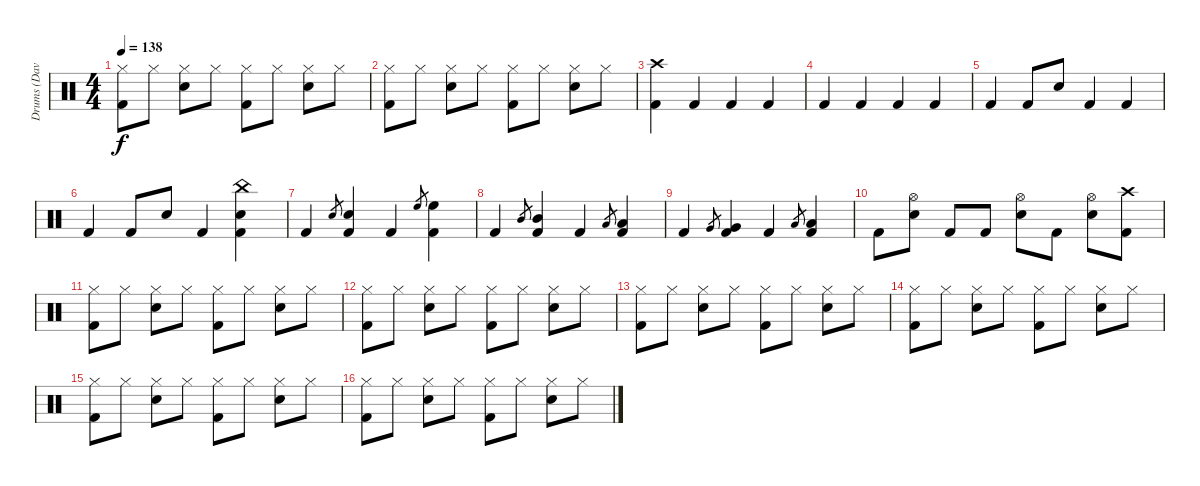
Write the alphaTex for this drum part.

\track ("Drums (Dave Holland)" "Drums (Dav") {instrument percussion}
\staff {score}
\articulation defaults
\ts (4 4)
\tempo 138
\clef neutral
\ks c
("Hi-Hat (closed)" "Kick (hit) 2").8{dy f} "Hi-Hat (closed)".8 ("Hi-Hat (closed)" "Snare (hit) 2").8 "Hi-Hat (closed)".8 ("Hi-Hat (closed)" "Kick (hit) 2").8 "Hi-Hat (closed)".8 ("Hi-Hat (closed)" "Snare (hit) 2").8 "Hi-Hat (closed)".8 |
("Hi-Hat (closed)" "Kick (hit) 2").8 "Hi-Hat (closed)".8 ("Hi-Hat (closed)" "Snare (hit) 2").8 "Hi-Hat (closed)".8 ("Hi-Hat (closed)" "Kick (hit) 2").8 "Hi-Hat (closed)".8 ("Hi-Hat (closed)" "Snare (hit) 2").8 "Hi-Hat (closed)".8 |
("Crash high (hit)" "Kick (hit) 2").4 "Kick (hit) 2".4 "Kick (hit) 2".4 "Kick (hit) 2".4 |
"Kick (hit) 2".4 "Kick (hit) 2".4 "Kick (hit) 2".4 "Kick (hit) 2".4 |
"Kick (hit) 2".4 "Kick (hit) 2".8 "Snare (hit) 2".8 "Kick (hit) 2".4 "Kick (hit) 2".4 |
"Kick (hit) 2".4 "Kick (hit) 2".8 "Snare (hit) 2".8 "Kick (hit) 2".4 ("China (hit)" "Snare (hit) 2" "Kick (hit) 2").4 |
"Kick (hit) 2".4 "Snare (hit) 2".8{gr} ("Snare (hit) 2" "Kick (hit) 2").4 "Kick (hit) 2".4 "High Floor Tom (hit)".8{gr} ("High Floor Tom (hit)" "Kick (hit) 2").4 |
"Kick (hit) 2".4 "Mid Tom (hit)".8{gr} ("Mid Tom (hit)" "Kick (hit) 2").4 "Kick (hit) 2".4 "Low Tom (hit)".8{gr} ("Low Tom (hit)" "Kick (hit) 2").4 |
"Kick (hit) 2".4 "Very Low Tom (hit)".8{gr} ("Very Low Tom (hit)" "Kick (hit) 2").4 "Kick (hit) 2".4 "Low Floor Tom (hit)".8{gr} ("Low Floor Tom (hit)" "Kick (hit) 2").4 |
"Kick (hit) 2".8 ("Hi-Hat (open)" "Snare (hit) 2").8 "Kick (hit) 2".8 "Kick (hit) 2".8 ("Hi-Hat (open)" "Snare (hit) 2").8 "Kick (hit) 2".8 ("Hi-Hat (open)" "Snare (hit) 2").8 ("Crash high (hit)" "Kick (hit) 2").8 |
("Hi-Hat (closed)" "Kick (hit) 2").8 "Hi-Hat (closed)".8 ("Hi-Hat (closed)" "Snare (hit) 2").8 "Hi-Hat (closed)".8 ("Hi-Hat (closed)" "Kick (hit) 2").8 "Hi-Hat (closed)".8 ("Hi-Hat (closed)" "Snare (hit) 2").8 "Hi-Hat (closed)".8 |
("Hi-Hat (closed)" "Kick (hit) 2").8 "Hi-Hat (closed)".8 ("Hi-Hat (closed)" "Snare (hit) 2").8 "Hi-Hat (closed)".8 ("Hi-Hat (closed)" "Kick (hit) 2").8 "Hi-Hat (closed)".8 ("Hi-Hat (closed)" "Snare (hit) 2").8 "Hi-Hat (closed)".8 |
("Hi-Hat (closed)" "Kick (hit) 2").8 "Hi-Hat (closed)".8 ("Hi-Hat (closed)" "Snare (hit) 2").8 "Hi-Hat (closed)".8 ("Hi-Hat (closed)" "Kick (hit) 2").8 "Hi-Hat (closed)".8 ("Hi-Hat (closed)" "Snare (hit) 2").8 "Hi-Hat (closed)".8 |
("Hi-Hat (closed)" "Kick (hit) 2").8 "Hi-Hat (closed)".8 ("Hi-Hat (closed)" "Snare (hit) 2").8 "Hi-Hat (closed)".8 ("Hi-Hat (closed)" "Kick (hit) 2").8 "Hi-Hat (closed)".8 ("Hi-Hat (closed)" "Snare (hit) 2").8 "Hi-Hat (closed)".8 |
("Hi-Hat (closed)" "Kick (hit) 2").8 "Hi-Hat (closed)".8 ("Hi-Hat (closed)" "Snare (hit) 2").8 "Hi-Hat (closed)".8 ("Hi-Hat (closed)" "Kick (hit) 2").8 "Hi-Hat (closed)".8 ("Hi-Hat (closed)" "Snare (hit) 2").8 "Hi-Hat (closed)".8 |
("Hi-Hat (closed)" "Kick (hit) 2").8 "Hi-Hat (closed)".8 ("Hi-Hat (closed)" "Snare (hit) 2").8 "Hi-Hat (closed)".8 ("Hi-Hat (closed)" "Kick (hit) 2").8 "Hi-Hat (closed)".8 ("Hi-Hat (closed)" "Snare (hit) 2").8 "Hi-Hat (closed)".8
